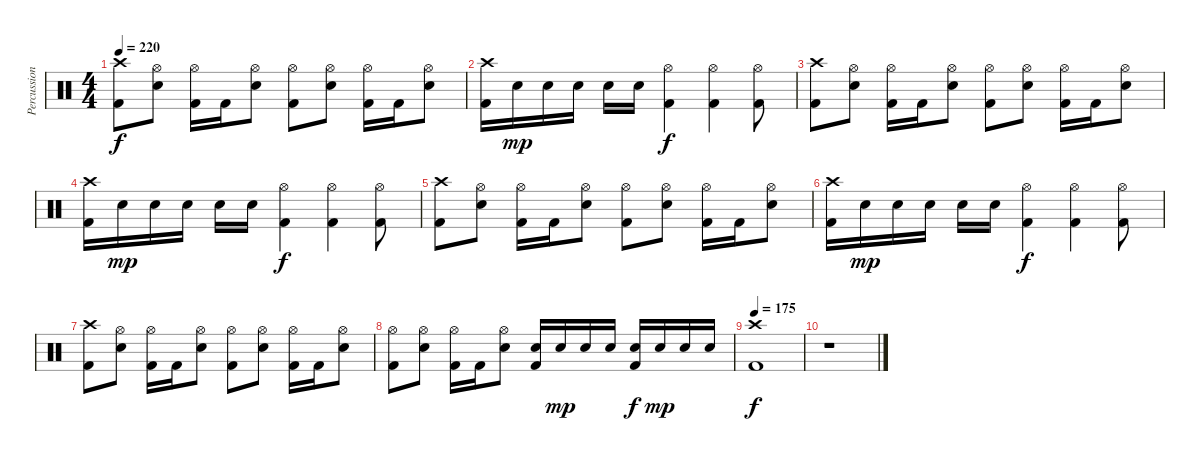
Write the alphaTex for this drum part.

\track ("Percussions" "Percussion") {instrument percussion}
\staff {score}
\articulation defaults
\ts (4 4)
\tempo 220
\clef neutral
\ks c
("Crash high (hit)" "Kick (hit) 2").8{dy f} ("Hi-Hat (open)" "Snare (hit) 2").8 ("Hi-Hat (open)" "Kick (hit) 2").16 "Kick (hit) 2".16 ("Hi-Hat (open)" "Snare (hit) 2").8 ("Hi-Hat (open)" "Kick (hit) 2").8 ("Hi-Hat (open)" "Snare (hit) 2").8 ("Hi-Hat (open)" "Kick (hit) 2").16 "Kick (hit) 2".16 ("Hi-Hat (open)" "Snare (hit) 2").8 |
("Crash high (hit)" "Kick (hit) 2").16 "Snare (hit) 2".16{dy mp} "Snare (hit) 2".16 "Snare (hit) 2".16 "Snare (hit) 2".16 "Snare (hit) 2".16 ("Hi-Hat (open)" "Kick (hit) 2").4{dy f} ("Hi-Hat (open)" "Kick (hit) 2").4 ("Hi-Hat (open)" "Kick (hit) 2").8 |
("Crash high (hit)" "Kick (hit) 2").8 ("Hi-Hat (open)" "Snare (hit) 2").8 ("Hi-Hat (open)" "Kick (hit) 2").16 "Kick (hit) 2".16 ("Hi-Hat (open)" "Snare (hit) 2").8 ("Hi-Hat (open)" "Kick (hit) 2").8 ("Hi-Hat (open)" "Snare (hit) 2").8 ("Hi-Hat (open)" "Kick (hit) 2").16 "Kick (hit) 2".16 ("Hi-Hat (open)" "Snare (hit) 2").8 |
("Crash high (hit)" "Kick (hit) 2").16 "Snare (hit) 2".16{dy mp} "Snare (hit) 2".16 "Snare (hit) 2".16 "Snare (hit) 2".16 "Snare (hit) 2".16 ("Hi-Hat (open)" "Kick (hit) 2").4{dy f} ("Hi-Hat (open)" "Kick (hit) 2").4 ("Hi-Hat (open)" "Kick (hit) 2").8 |
("Crash high (hit)" "Kick (hit) 2").8 ("Hi-Hat (open)" "Snare (hit) 2").8 ("Hi-Hat (open)" "Kick (hit) 2").16 "Kick (hit) 2".16 ("Hi-Hat (open)" "Snare (hit) 2").8 ("Hi-Hat (open)" "Kick (hit) 2").8 ("Hi-Hat (open)" "Snare (hit) 2").8 ("Hi-Hat (open)" "Kick (hit) 2").16 "Kick (hit) 2".16 ("Hi-Hat (open)" "Snare (hit) 2").8 |
("Crash high (hit)" "Kick (hit) 2").16 "Snare (hit) 2".16{dy mp} "Snare (hit) 2".16 "Snare (hit) 2".16 "Snare (hit) 2".16 "Snare (hit) 2".16 ("Hi-Hat (open)" "Kick (hit) 2").4{dy f} ("Hi-Hat (open)" "Kick (hit) 2").4 ("Hi-Hat (open)" "Kick (hit) 2").8 |
("Crash high (hit)" "Kick (hit) 2").8 ("Hi-Hat (open)" "Snare (hit) 2").8 ("Hi-Hat (open)" "Kick (hit) 2").16 "Kick (hit) 2".16 ("Hi-Hat (open)" "Snare (hit) 2").8 ("Hi-Hat (open)" "Kick (hit) 2").8 ("Hi-Hat (open)" "Snare (hit) 2").8 ("Hi-Hat (open)" "Kick (hit) 2").16 "Kick (hit) 2".16 ("Hi-Hat (open)" "Snare (hit) 2").8 |
("Hi-Hat (open)" "Kick (hit) 2").8 ("Hi-Hat (open)" "Snare (hit) 2").8 ("Hi-Hat (open)" "Kick (hit) 2").16 "Kick (hit) 2".16 ("Hi-Hat (open)" "Snare (hit) 2").8 ("Snare (hit) 2" "Kick (hit) 2").16 "Snare (hit) 2".16{dy mp} "Snare (hit) 2".16 "Snare (hit) 2".16 ("Snare (hit) 2" "Kick (hit) 2").16{dy f} "Snare (hit) 2".16{dy mp} "Snare (hit) 2".16 "Snare (hit) 2".16 |
\tempo 175
("Crash high (hit)" "Kick (hit) 2").1{dy f} |
r.1
